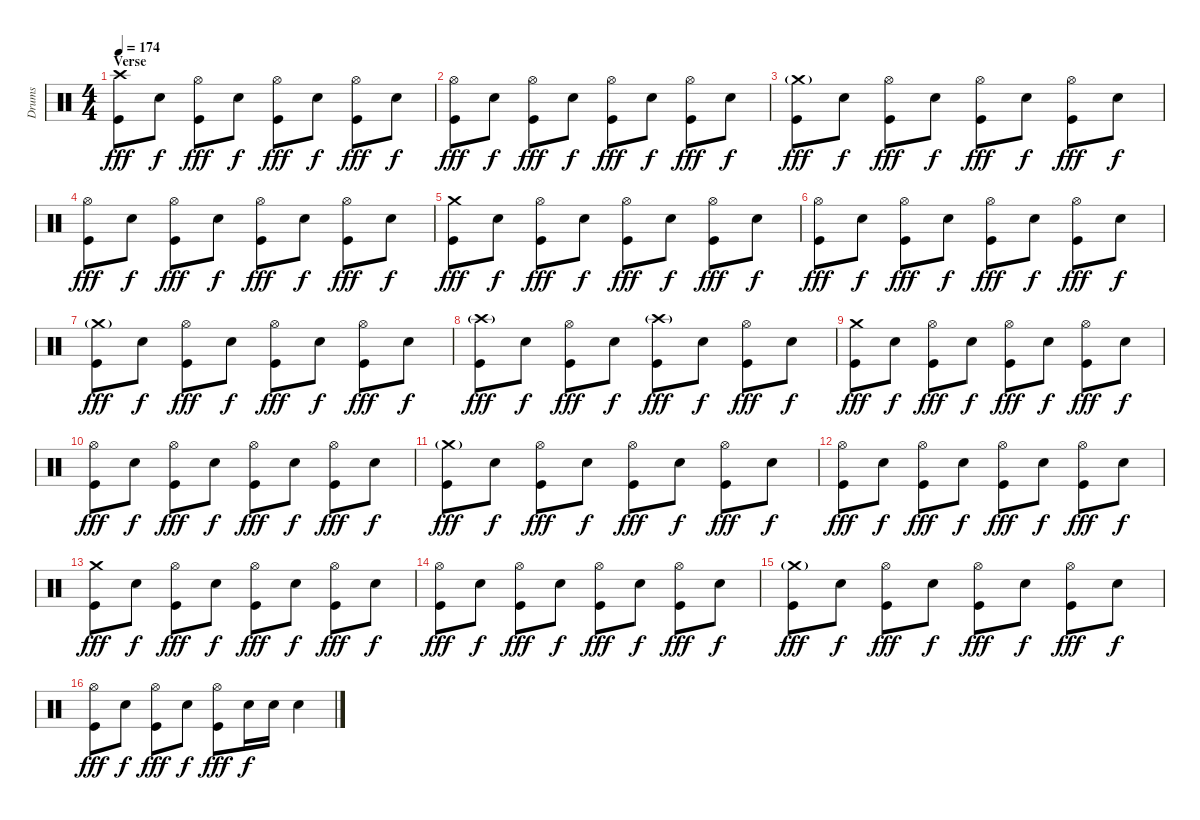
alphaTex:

\track ("Drums" "Drums") {instrument percussion}
\staff {score}
\articulation defaults
\ts (4 4)
\section ("" "Verse")
\tempo 174
\clef neutral
\ks c
("Crash high (hit)" "Kick (hit)").8{dy fff} "Snare (hit) 2".8{dy f} ("Hi-Hat (open)" "Kick (hit)").8{dy fff} "Snare (hit) 2".8{dy f} ("Hi-Hat (open)" "Kick (hit)").8{dy fff} "Snare (hit) 2".8{dy f} ("Hi-Hat (open)" "Kick (hit)").8{dy fff} "Snare (hit) 2".8{dy f} |
("Hi-Hat (open)" "Kick (hit)").8{dy fff} "Snare (hit) 2".8{dy f} ("Hi-Hat (open)" "Kick (hit)").8{dy fff} "Snare (hit) 2".8{dy f} ("Hi-Hat (open)" "Kick (hit)").8{dy fff} "Snare (hit) 2".8{dy f} ("Hi-Hat (open)" "Kick (hit)").8{dy fff} "Snare (hit) 2".8{dy f} |
("Crash medium (hit)"{g} "Kick (hit)").8{dy fff} "Snare (hit) 2".8{dy f} ("Hi-Hat (open)" "Kick (hit)").8{dy fff} "Snare (hit) 2".8{dy f} ("Hi-Hat (open)" "Kick (hit)").8{dy fff} "Snare (hit) 2".8{dy f} ("Hi-Hat (open)" "Kick (hit)").8{dy fff} "Snare (hit) 2".8{dy f} |
("Hi-Hat (open)" "Kick (hit)").8{dy fff} "Snare (hit) 2".8{dy f} ("Hi-Hat (open)" "Kick (hit)").8{dy fff} "Snare (hit) 2".8{dy f} ("Hi-Hat (open)" "Kick (hit)").8{dy fff} "Snare (hit) 2".8{dy f} ("Hi-Hat (open)" "Kick (hit)").8{dy fff} "Snare (hit) 2".8{dy f} |
("Crash medium (hit)" "Kick (hit)").8{dy fff} "Snare (hit) 2".8{dy f} ("Hi-Hat (open)" "Kick (hit)").8{dy fff} "Snare (hit) 2".8{dy f} ("Hi-Hat (open)" "Kick (hit)").8{dy fff} "Snare (hit) 2".8{dy f} ("Hi-Hat (open)" "Kick (hit)").8{dy fff} "Snare (hit) 2".8{dy f} |
("Hi-Hat (open)" "Kick (hit)").8{dy fff} "Snare (hit) 2".8{dy f} ("Hi-Hat (open)" "Kick (hit)").8{dy fff} "Snare (hit) 2".8{dy f} ("Hi-Hat (open)" "Kick (hit)").8{dy fff} "Snare (hit) 2".8{dy f} ("Hi-Hat (open)" "Kick (hit)").8{dy fff} "Snare (hit) 2".8{dy f} |
("Crash medium (hit)"{g} "Kick (hit)").8{dy fff} "Snare (hit) 2".8{dy f} ("Hi-Hat (open)" "Kick (hit)").8{dy fff} "Snare (hit) 2".8{dy f} ("Hi-Hat (open)" "Kick (hit)").8{dy fff} "Snare (hit) 2".8{dy f} ("Hi-Hat (open)" "Kick (hit)").8{dy fff} "Snare (hit) 2".8{dy f} |
("Crash high (hit)"{g} "Kick (hit)").8{dy fff} "Snare (hit) 2".8{dy f} ("Hi-Hat (open)" "Kick (hit)").8{dy fff} "Snare (hit) 2".8{dy f} ("Crash high (hit)"{g} "Kick (hit)").8{dy fff} "Snare (hit) 2".8{dy f} ("Hi-Hat (open)" "Kick (hit)").8{dy fff} "Snare (hit) 2".8{dy f} |
("Crash medium (hit)" "Kick (hit)").8{dy fff} "Snare (hit) 2".8{dy f} ("Hi-Hat (open)" "Kick (hit)").8{dy fff} "Snare (hit) 2".8{dy f} ("Hi-Hat (open)" "Kick (hit)").8{dy fff} "Snare (hit) 2".8{dy f} ("Hi-Hat (open)" "Kick (hit)").8{dy fff} "Snare (hit) 2".8{dy f} |
("Hi-Hat (open)" "Kick (hit)").8{dy fff} "Snare (hit) 2".8{dy f} ("Hi-Hat (open)" "Kick (hit)").8{dy fff} "Snare (hit) 2".8{dy f} ("Hi-Hat (open)" "Kick (hit)").8{dy fff} "Snare (hit) 2".8{dy f} ("Hi-Hat (open)" "Kick (hit)").8{dy fff} "Snare (hit) 2".8{dy f} |
("Crash medium (hit)"{g} "Kick (hit)").8{dy fff} "Snare (hit) 2".8{dy f} ("Hi-Hat (open)" "Kick (hit)").8{dy fff} "Snare (hit) 2".8{dy f} ("Hi-Hat (open)" "Kick (hit)").8{dy fff} "Snare (hit) 2".8{dy f} ("Hi-Hat (open)" "Kick (hit)").8{dy fff} "Snare (hit) 2".8{dy f} |
("Hi-Hat (open)" "Kick (hit)").8{dy fff} "Snare (hit) 2".8{dy f} ("Hi-Hat (open)" "Kick (hit)").8{dy fff} "Snare (hit) 2".8{dy f} ("Hi-Hat (open)" "Kick (hit)").8{dy fff} "Snare (hit) 2".8{dy f} ("Hi-Hat (open)" "Kick (hit)").8{dy fff} "Snare (hit) 2".8{dy f} |
("Crash medium (hit)" "Kick (hit)").8{dy fff} "Snare (hit) 2".8{dy f} ("Hi-Hat (open)" "Kick (hit)").8{dy fff} "Snare (hit) 2".8{dy f} ("Hi-Hat (open)" "Kick (hit)").8{dy fff} "Snare (hit) 2".8{dy f} ("Hi-Hat (open)" "Kick (hit)").8{dy fff} "Snare (hit) 2".8{dy f} |
("Hi-Hat (open)" "Kick (hit)").8{dy fff} "Snare (hit) 2".8{dy f} ("Hi-Hat (open)" "Kick (hit)").8{dy fff} "Snare (hit) 2".8{dy f} ("Hi-Hat (open)" "Kick (hit)").8{dy fff} "Snare (hit) 2".8{dy f} ("Hi-Hat (open)" "Kick (hit)").8{dy fff} "Snare (hit) 2".8{dy f} |
("Crash medium (hit)"{g} "Kick (hit)").8{dy fff} "Snare (hit) 2".8{dy f} ("Hi-Hat (open)" "Kick (hit)").8{dy fff} "Snare (hit) 2".8{dy f} ("Hi-Hat (open)" "Kick (hit)").8{dy fff} "Snare (hit) 2".8{dy f} ("Hi-Hat (open)" "Kick (hit)").8{dy fff} "Snare (hit) 2".8{dy f} |
("Hi-Hat (open)" "Kick (hit)").8{dy fff} "Snare (hit) 2".8{dy f} ("Hi-Hat (open)" "Kick (hit)").8{dy fff} "Snare (hit) 2".8{dy f} ("Hi-Hat (open)" "Kick (hit)").8{dy fff} "Snare (hit) 2".16{dy f} "Snare (hit) 2".16 "Snare (hit) 2".4
